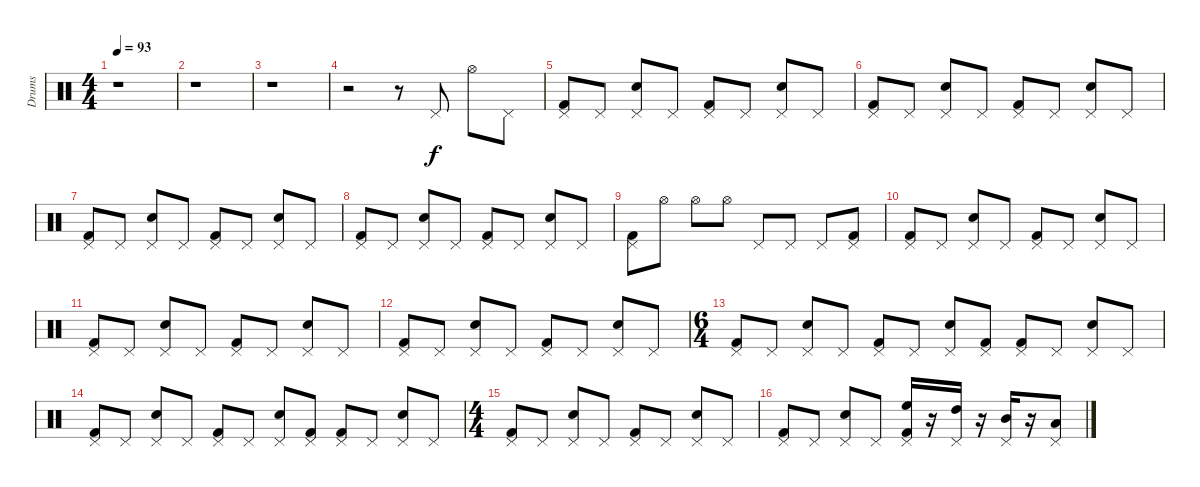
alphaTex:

\track ("Drums" "Drums") {instrument percussion}
\staff {score}
\articulation defaults
\ts (4 4)
\tempo 93
\clef neutral
\ks c
r.1{dy f} |
r.1 |
r.1 |
r.2 r.8 "Pedal Hi-Hat (hit)".8 "Hi-Hat (open)".8 "Pedal Hi-Hat (hit)".8 |
("Pedal Hi-Hat (hit)" "Kick (hit) 2").8 "Pedal Hi-Hat (hit)".8 ("Pedal Hi-Hat (hit)" "Electric Snare (hit)").8 "Pedal Hi-Hat (hit)".8 ("Pedal Hi-Hat (hit)" "Kick (hit) 2").8 "Pedal Hi-Hat (hit)".8 ("Pedal Hi-Hat (hit)" "Electric Snare (hit)").8 "Pedal Hi-Hat (hit)".8 |
("Pedal Hi-Hat (hit)" "Kick (hit) 2").8 "Pedal Hi-Hat (hit)".8 ("Pedal Hi-Hat (hit)" "Electric Snare (hit)").8 "Pedal Hi-Hat (hit)".8 ("Pedal Hi-Hat (hit)" "Kick (hit) 2").8 "Pedal Hi-Hat (hit)".8 ("Pedal Hi-Hat (hit)" "Electric Snare (hit)").8 "Pedal Hi-Hat (hit)".8 |
("Pedal Hi-Hat (hit)" "Kick (hit) 2").8 "Pedal Hi-Hat (hit)".8 ("Pedal Hi-Hat (hit)" "Electric Snare (hit)").8 "Pedal Hi-Hat (hit)".8 ("Pedal Hi-Hat (hit)" "Kick (hit) 2").8 "Pedal Hi-Hat (hit)".8 ("Pedal Hi-Hat (hit)" "Electric Snare (hit)").8 "Pedal Hi-Hat (hit)".8 |
("Pedal Hi-Hat (hit)" "Kick (hit) 2").8 "Pedal Hi-Hat (hit)".8 ("Pedal Hi-Hat (hit)" "Electric Snare (hit)").8 "Pedal Hi-Hat (hit)".8 ("Pedal Hi-Hat (hit)" "Kick (hit) 2").8 "Pedal Hi-Hat (hit)".8 ("Pedal Hi-Hat (hit)" "Electric Snare (hit)").8 "Pedal Hi-Hat (hit)".8 |
("Pedal Hi-Hat (hit)" "Kick (hit) 2").8 "Hi-Hat (open)".8 "Hi-Hat (open)".8 "Hi-Hat (open)".8 "Pedal Hi-Hat (hit)".8 "Pedal Hi-Hat (hit)".8 "Pedal Hi-Hat (hit)".8 ("Pedal Hi-Hat (hit)" "Kick (hit) 2").8 |
("Pedal Hi-Hat (hit)" "Kick (hit) 2").8 "Pedal Hi-Hat (hit)".8 ("Pedal Hi-Hat (hit)" "Electric Snare (hit)").8 "Pedal Hi-Hat (hit)".8 ("Pedal Hi-Hat (hit)" "Kick (hit) 2").8 "Pedal Hi-Hat (hit)".8 ("Pedal Hi-Hat (hit)" "Electric Snare (hit)").8 "Pedal Hi-Hat (hit)".8 |
("Pedal Hi-Hat (hit)" "Kick (hit) 2").8 "Pedal Hi-Hat (hit)".8 ("Pedal Hi-Hat (hit)" "Electric Snare (hit)").8 "Pedal Hi-Hat (hit)".8 ("Pedal Hi-Hat (hit)" "Kick (hit) 2").8 "Pedal Hi-Hat (hit)".8 ("Pedal Hi-Hat (hit)" "Electric Snare (hit)").8 "Pedal Hi-Hat (hit)".8 |
("Pedal Hi-Hat (hit)" "Kick (hit) 2").8 "Pedal Hi-Hat (hit)".8 ("Pedal Hi-Hat (hit)" "Electric Snare (hit)").8 "Pedal Hi-Hat (hit)".8 ("Pedal Hi-Hat (hit)" "Kick (hit) 2").8 "Pedal Hi-Hat (hit)".8 ("Pedal Hi-Hat (hit)" "Electric Snare (hit)").8 "Pedal Hi-Hat (hit)".8 |
\ts (6 4)
("Pedal Hi-Hat (hit)" "Kick (hit) 2").8 "Pedal Hi-Hat (hit)".8 ("Pedal Hi-Hat (hit)" "Electric Snare (hit)").8 "Pedal Hi-Hat (hit)".8 ("Pedal Hi-Hat (hit)" "Kick (hit) 2").8 "Pedal Hi-Hat (hit)".8 ("Pedal Hi-Hat (hit)" "Electric Snare (hit)").8 ("Pedal Hi-Hat (hit)" "Kick (hit) 2").8 ("Pedal Hi-Hat (hit)" "Kick (hit) 2").8 "Pedal Hi-Hat (hit)".8 ("Pedal Hi-Hat (hit)" "Electric Snare (hit)").8 "Pedal Hi-Hat (hit)".8 |
("Pedal Hi-Hat (hit)" "Kick (hit) 2").8 "Pedal Hi-Hat (hit)".8 ("Pedal Hi-Hat (hit)" "Electric Snare (hit)").8 "Pedal Hi-Hat (hit)".8 ("Pedal Hi-Hat (hit)" "Kick (hit) 2").8 "Pedal Hi-Hat (hit)".8 ("Pedal Hi-Hat (hit)" "Electric Snare (hit)").8 ("Pedal Hi-Hat (hit)" "Kick (hit) 2").8 ("Pedal Hi-Hat (hit)" "Kick (hit) 2").8 "Pedal Hi-Hat (hit)".8 ("Pedal Hi-Hat (hit)" "Electric Snare (hit)").8 "Pedal Hi-Hat (hit)".8 |
\ts (4 4)
("Pedal Hi-Hat (hit)" "Kick (hit) 2").8 "Pedal Hi-Hat (hit)".8 ("Pedal Hi-Hat (hit)" "Electric Snare (hit)").8 "Pedal Hi-Hat (hit)".8 ("Pedal Hi-Hat (hit)" "Kick (hit) 2").8 "Pedal Hi-Hat (hit)".8 ("Pedal Hi-Hat (hit)" "Electric Snare (hit)").8 "Pedal Hi-Hat (hit)".8 |
("Pedal Hi-Hat (hit)" "Kick (hit) 2").8 "Pedal Hi-Hat (hit)".8 ("Pedal Hi-Hat (hit)" "Electric Snare (hit)").8 "Pedal Hi-Hat (hit)".8 ("Pedal Hi-Hat (hit)" "High Floor Tom (hit)" "Kick (hit) 2").16 r.16 ("Pedal Hi-Hat (hit)" "High Tom (hit)").16 r.16 ("Pedal Hi-Hat (hit)" "Mid Tom (hit)").16 r.16 ("Pedal Hi-Hat (hit)" "Low Tom (hit)").8
